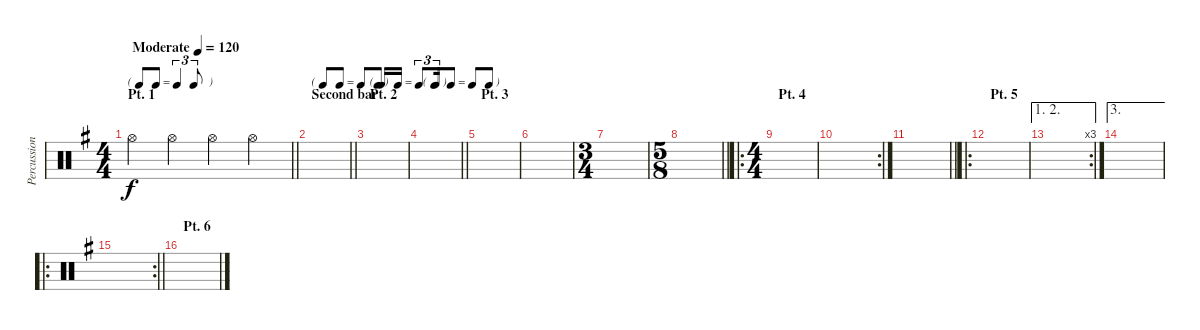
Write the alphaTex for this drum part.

\track ("Percussion" "Percussion") {instrument percussion}
\staff {score}
\articulation defaults
\ts (4 4)
\tf triplet8th
\section ("" "Pt. 1")
\tempo (120 "Moderate")
\clef neutral
\barLineRight lightlight
\ks g "Hi-Hat (open)".4{dy f} "Hi-Hat (open)".4 "Hi-Hat (open)".4 "Hi-Hat (open)".4
|
\tf none
\section ("" "Second bar")
\barLineRight lightlight
|
\tf triplet16th
\section ("" "Pt. 2")
|
\tf none
\barLineRight lightlight
|
\section ("" "Pt. 3")
|
|
\ts (3 4)
|
\ts (5 8)
\barLineRight lightlight
|
\ro
\ts (4 4)
\section ("" "Pt. 4")
|
\rc 2
|
\barLineRight lightlight
|
\ro
\section ("" "Pt. 5")
|
\ae (1 2)
\rc 3
|
\ae 3
|
\ro
\rc 2
\barLineRight lightlight
|
\section ("" "Pt. 6")
